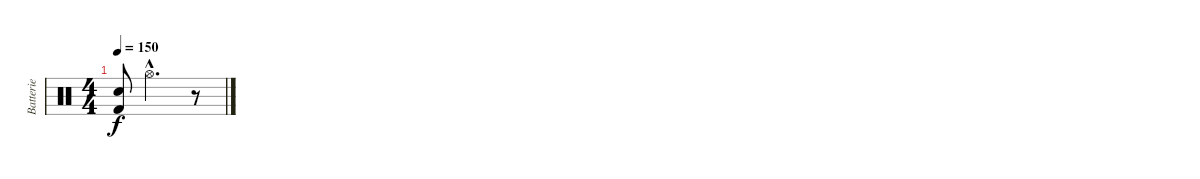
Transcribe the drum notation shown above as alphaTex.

\track ("Batterie" "Batterie") {instrument percussion}
\staff {score}
\articulation defaults
\ts (4 4)
\tempo 150
\clef neutral
\ks c
("Electric Snare (hit)" "Kick (hit) 2").8{dy f} "Hi-Hat (open)"{hac}.2{d} r.8
